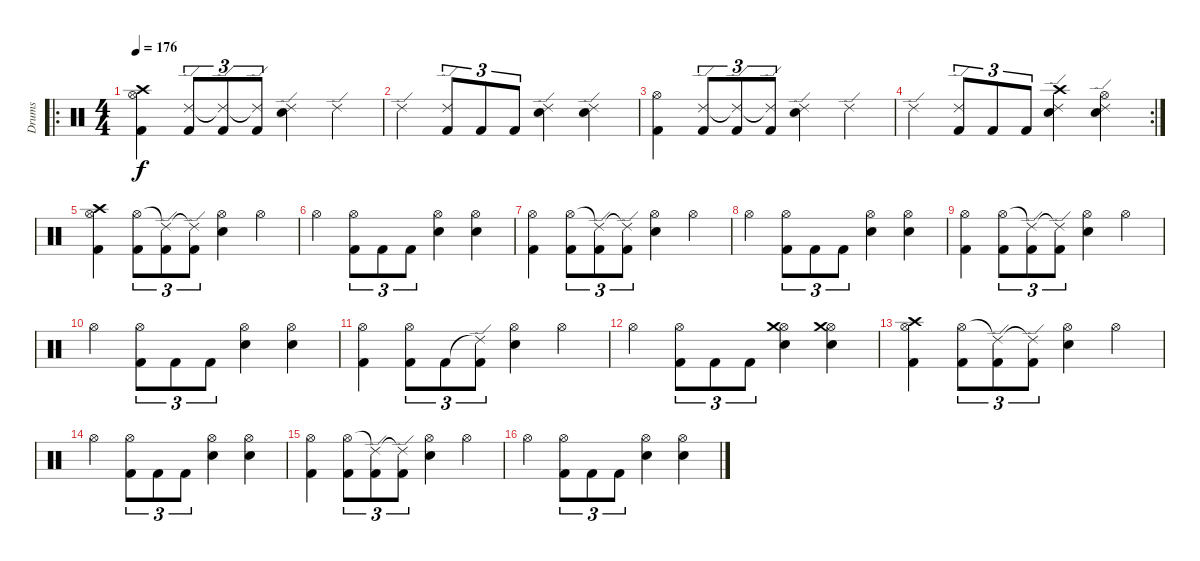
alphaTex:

\track ("Drums" "Drums") {instrument percussion}
\staff {score}
\articulation defaults
\ro
\ts (4 4)
\tempo 176
\clef neutral
\ks c
("Hi-Hat (open)" "Kick (hit) 2" "Crash high (hit)").4{dy f} ("Ride (edge) 2" "Kick (hit) 2").8{tu (3 2)} ("Ride (edge) 2"{t} "Kick (hit) 2").8{tu (3 2)} ("Ride (edge) 2"{t} "Kick (hit) 2").8{tu (3 2)} ("Ride (edge) 2" "Electric Snare (hit)").4 "Ride (edge) 2".4 |
"Ride (edge) 2".4 ("Ride (edge) 2" "Kick (hit) 2").8{tu (3 2)} "Kick (hit) 2".8{tu (3 2)} "Kick (hit) 2".8{tu (3 2)} ("Ride (edge) 2" "Electric Snare (hit)").4 ("Ride (edge) 2" "Electric Snare (hit)").4 |
("Hi-Hat (open)" "Kick (hit) 2").4 ("Ride (edge) 2" "Kick (hit) 2").8{tu (3 2)} ("Ride (edge) 2"{t} "Kick (hit) 2").8{tu (3 2)} ("Ride (edge) 2"{t} "Kick (hit) 2").8{tu (3 2)} ("Ride (edge) 2" "Electric Snare (hit)").4 "Ride (edge) 2".4 |
\rc 2 "Ride (edge) 2".4
("Ride (edge) 2" "Kick (hit) 2").8{tu (3 2)} "Kick (hit) 2".8{tu (3 2)} "Kick (hit) 2".8{tu (3 2)} ("Ride (edge) 2" "Electric Snare (hit)" "Crash high (hit)").4 ("Ride (edge) 2" "Electric Snare (hit)" "Hi-Hat (open)").4 |
("Hi-Hat (open)" "Kick (hit) 2" "Crash high (hit)").4 ("Hi-Hat (open)" "Kick (hit) 2").8{tu (3 2)} ("Ride (edge) 2"{t} "Kick (hit) 2").8{tu (3 2)} ("Ride (edge) 2"{t} "Kick (hit) 2").8{tu (3 2)} ("Hi-Hat (open)" "Snare (hit) 2").4 "Hi-Hat (open)".4 |
"Hi-Hat (open)".4 ("Hi-Hat (open)" "Kick (hit) 2").8{tu (3 2)} "Kick (hit) 2".8{tu (3 2)} "Kick (hit) 2".8{tu (3 2)} ("Hi-Hat (open)" "Snare (hit) 2").4 ("Hi-Hat (open)" "Snare (hit) 2").4 |
("Hi-Hat (open)" "Kick (hit) 2").4 ("Hi-Hat (open)" "Kick (hit) 2").8{tu (3 2)} ("Ride (edge) 2"{t} "Kick (hit) 2").8{tu (3 2)} ("Ride (edge) 2"{t} "Kick (hit) 2").8{tu (3 2)} ("Hi-Hat (open)" "Snare (hit) 2").4 "Hi-Hat (open)".4 |
"Hi-Hat (open)".4 ("Hi-Hat (open)" "Kick (hit) 2").8{tu (3 2)} "Kick (hit) 2".8{tu (3 2)} "Kick (hit) 2".8{tu (3 2)} ("Hi-Hat (open)" "Snare (hit) 2").4 ("Hi-Hat (open)" "Snare (hit) 2").4 |
("Hi-Hat (open)" "Kick (hit) 2").4 ("Hi-Hat (open)" "Kick (hit) 2").8{tu (3 2)} ("Ride (edge) 2"{t} "Kick (hit) 2").8{tu (3 2)} ("Ride (edge) 2"{t} "Kick (hit) 2").8{tu (3 2)} ("Hi-Hat (open)" "Snare (hit) 2").4 "Hi-Hat (open)".4 |
"Hi-Hat (open)".4 ("Hi-Hat (open)" "Kick (hit) 2").8{tu (3 2)} "Kick (hit) 2".8{tu (3 2)} "Kick (hit) 2".8{tu (3 2)} ("Hi-Hat (open)" "Snare (hit) 2").4 ("Hi-Hat (open)" "Snare (hit) 2").4 |
("Hi-Hat (open)" "Kick (hit) 2").4 ("Hi-Hat (open)" "Kick (hit) 2").8{tu (3 2)} "Kick (hit) 2".8{tu (3 2)} ("Ride (edge) 2"{t} "Kick (hit) 2").8{tu (3 2)} ("Hi-Hat (open)" "Snare (hit) 2").4 "Hi-Hat (open)".4 |
"Hi-Hat (open)".4 ("Hi-Hat (open)" "Kick (hit) 2").8{tu (3 2)} "Kick (hit) 2".8{tu (3 2)} "Kick (hit) 2".8{tu (3 2)} ("Hi-Hat (open)" "Snare (hit) 2" "Crash medium (hit)").4 ("Hi-Hat (open)" "Snare (hit) 2" "Crash medium (hit)").4 |
("Hi-Hat (open)" "Kick (hit) 2" "Crash high (hit)").4 ("Hi-Hat (open)" "Kick (hit) 2").8{tu (3 2)} ("Ride (edge) 2"{t} "Kick (hit) 2").8{tu (3 2)} ("Ride (edge) 2"{t} "Kick (hit) 2").8{tu (3 2)} ("Hi-Hat (open)" "Snare (hit) 2").4 "Hi-Hat (open)".4 |
"Hi-Hat (open)".4 ("Hi-Hat (open)" "Kick (hit) 2").8{tu (3 2)} "Kick (hit) 2".8{tu (3 2)} "Kick (hit) 2".8{tu (3 2)} ("Hi-Hat (open)" "Snare (hit) 2").4 ("Hi-Hat (open)" "Snare (hit) 2").4 |
("Hi-Hat (open)" "Kick (hit) 2").4 ("Hi-Hat (open)" "Kick (hit) 2").8{tu (3 2)} ("Ride (edge) 2"{t} "Kick (hit) 2").8{tu (3 2)} ("Ride (edge) 2"{t} "Kick (hit) 2").8{tu (3 2)} ("Hi-Hat (open)" "Snare (hit) 2").4 "Hi-Hat (open)".4 |
"Hi-Hat (open)".4 ("Hi-Hat (open)" "Kick (hit) 2").8{tu (3 2)} "Kick (hit) 2".8{tu (3 2)} "Kick (hit) 2".8{tu (3 2)} ("Hi-Hat (open)" "Snare (hit) 2").4 ("Hi-Hat (open)" "Snare (hit) 2").4
